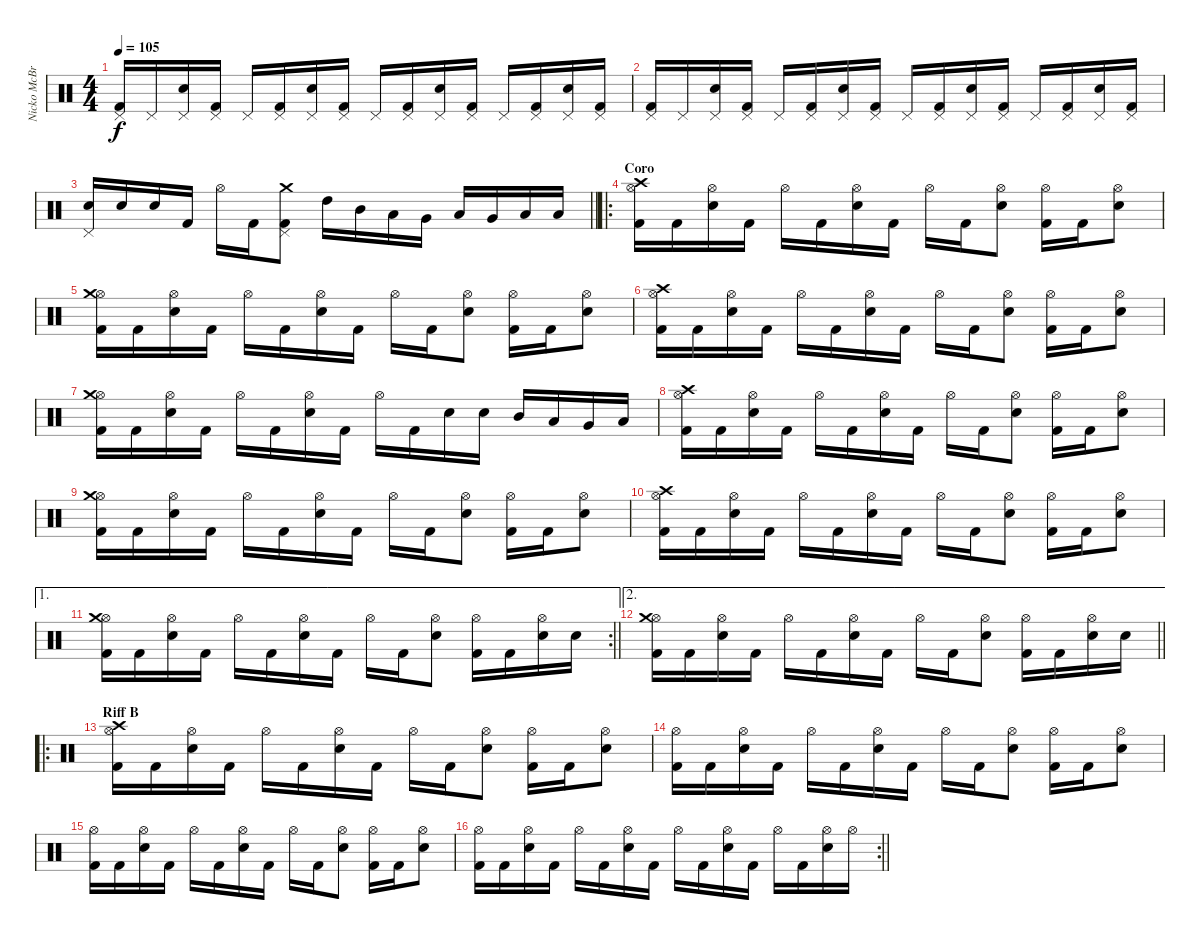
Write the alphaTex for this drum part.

\track ("Nicko McBrain" "Nicko McBr") {instrument percussion}
\staff {score}
\articulation defaults
\ts (4 4)
\tempo 105
\clef neutral
\ks c
("Kick (hit) 2" "Pedal Hi-Hat (hit)").16{dy f} "Pedal Hi-Hat (hit)".16 ("Snare (hit) 2" "Pedal Hi-Hat (hit)").16 ("Kick (hit) 2" "Pedal Hi-Hat (hit)").16 "Pedal Hi-Hat (hit)".16 ("Kick (hit) 2" "Pedal Hi-Hat (hit)").16 ("Snare (hit) 2" "Pedal Hi-Hat (hit)").16 ("Kick (hit) 2" "Pedal Hi-Hat (hit)").16 "Pedal Hi-Hat (hit)".16 ("Kick (hit) 2" "Pedal Hi-Hat (hit)").16 ("Snare (hit) 2" "Pedal Hi-Hat (hit)").16 ("Kick (hit) 2" "Pedal Hi-Hat (hit)").16 "Pedal Hi-Hat (hit)".16 ("Kick (hit) 2" "Pedal Hi-Hat (hit)").16 ("Snare (hit) 2" "Pedal Hi-Hat (hit)").16 ("Kick (hit) 2" "Pedal Hi-Hat (hit)").16 |
("Kick (hit) 2" "Pedal Hi-Hat (hit)").16 "Pedal Hi-Hat (hit)".16 ("Snare (hit) 2" "Pedal Hi-Hat (hit)").16 ("Kick (hit) 2" "Pedal Hi-Hat (hit)").16 "Pedal Hi-Hat (hit)".16 ("Kick (hit) 2" "Pedal Hi-Hat (hit)").16 ("Snare (hit) 2" "Pedal Hi-Hat (hit)").16 ("Kick (hit) 2" "Pedal Hi-Hat (hit)").16 "Pedal Hi-Hat (hit)".16 ("Kick (hit) 2" "Pedal Hi-Hat (hit)").16 ("Snare (hit) 2" "Pedal Hi-Hat (hit)").16 ("Kick (hit) 2" "Pedal Hi-Hat (hit)").16 "Pedal Hi-Hat (hit)".16 ("Kick (hit) 2" "Pedal Hi-Hat (hit)").16 ("Snare (hit) 2" "Pedal Hi-Hat (hit)").16 ("Kick (hit) 2" "Pedal Hi-Hat (hit)").16 |
\barLineRight lightlight
("Snare (hit) 2" "Pedal Hi-Hat (hit)").16 "Snare (hit) 2".16 "Snare (hit) 2".16 "Kick (hit) 2".16 "Hi-Hat (open)".16 "Kick (hit) 2".16 ("Kick (hit) 2" "Pedal Hi-Hat (hit)" "Crash medium (hit)").8 "High Tom (hit)".16 "Mid Tom (hit)".16 "Low Tom (hit)".16 "Very Low Tom (hit)".16 "Low Tom (hit)".16 "Very Low Tom (hit)".16 "Low Floor Tom (hit)".16 "Low Floor Tom (hit)".16 |
\ro
\section ("" "Coro")
("Kick (hit) 2" "Hi-Hat (open)" "Crash high (hit)").16 "Kick (hit) 2".16 ("Snare (hit) 2" "Hi-Hat (open)").16 "Kick (hit) 2".16 "Hi-Hat (open)".16 "Kick (hit) 2".16 ("Snare (hit) 2" "Hi-Hat (open)").16 "Kick (hit) 2".16 "Hi-Hat (open)".16 "Kick (hit) 2".16 ("Snare (hit) 2" "Hi-Hat (open)").8 ("Kick (hit) 2" "Hi-Hat (open)").16 "Kick (hit) 2".16 ("Snare (hit) 2" "Hi-Hat (open)").8 |
("Kick (hit) 2" "Hi-Hat (open)" "Crash medium (hit)").16 "Kick (hit) 2".16 ("Snare (hit) 2" "Hi-Hat (open)").16 "Kick (hit) 2".16 "Hi-Hat (open)".16 "Kick (hit) 2".16 ("Snare (hit) 2" "Hi-Hat (open)").16 "Kick (hit) 2".16 "Hi-Hat (open)".16 "Kick (hit) 2".16 ("Snare (hit) 2" "Hi-Hat (open)").8 ("Kick (hit) 2" "Hi-Hat (open)").16 "Kick (hit) 2".16 ("Snare (hit) 2" "Hi-Hat (open)").8 |
("Kick (hit) 2" "Hi-Hat (open)" "Crash high (hit)").16 "Kick (hit) 2".16 ("Snare (hit) 2" "Hi-Hat (open)").16 "Kick (hit) 2".16 "Hi-Hat (open)".16 "Kick (hit) 2".16 ("Snare (hit) 2" "Hi-Hat (open)").16 "Kick (hit) 2".16 "Hi-Hat (open)".16 "Kick (hit) 2".16 ("Snare (hit) 2" "Hi-Hat (open)").8 ("Kick (hit) 2" "Hi-Hat (open)").16 "Kick (hit) 2".16 ("Snare (hit) 2" "Hi-Hat (open)").8 |
("Kick (hit) 2" "Hi-Hat (open)" "Crash medium (hit)").16 "Kick (hit) 2".16 ("Snare (hit) 2" "Hi-Hat (open)").16 "Kick (hit) 2".16 "Hi-Hat (open)".16 "Kick (hit) 2".16 ("Snare (hit) 2" "Hi-Hat (open)").16 "Kick (hit) 2".16 "Hi-Hat (open)".16 "Kick (hit) 2".16 "Snare (hit) 2".16 "Snare (hit) 2".16 "Mid Tom (hit)".16 "Low Tom (hit)".16 "Very Low Tom (hit)".16 "Low Floor Tom (hit)".16 |
("Kick (hit) 2" "Hi-Hat (open)" "Crash high (hit)").16 "Kick (hit) 2".16 ("Snare (hit) 2" "Hi-Hat (open)").16 "Kick (hit) 2".16 "Hi-Hat (open)".16 "Kick (hit) 2".16 ("Snare (hit) 2" "Hi-Hat (open)").16 "Kick (hit) 2".16 "Hi-Hat (open)".16 "Kick (hit) 2".16 ("Snare (hit) 2" "Hi-Hat (open)").8 ("Kick (hit) 2" "Hi-Hat (open)").16 "Kick (hit) 2".16 ("Snare (hit) 2" "Hi-Hat (open)").8 |
("Kick (hit) 2" "Hi-Hat (open)" "Crash medium (hit)").16 "Kick (hit) 2".16 ("Snare (hit) 2" "Hi-Hat (open)").16 "Kick (hit) 2".16 "Hi-Hat (open)".16 "Kick (hit) 2".16 ("Snare (hit) 2" "Hi-Hat (open)").16 "Kick (hit) 2".16 "Hi-Hat (open)".16 "Kick (hit) 2".16 ("Snare (hit) 2" "Hi-Hat (open)").8 ("Kick (hit) 2" "Hi-Hat (open)").16 "Kick (hit) 2".16 ("Snare (hit) 2" "Hi-Hat (open)").8 |
("Kick (hit) 2" "Hi-Hat (open)" "Crash high (hit)").16 "Kick (hit) 2".16 ("Snare (hit) 2" "Hi-Hat (open)").16 "Kick (hit) 2".16 "Hi-Hat (open)".16 "Kick (hit) 2".16 ("Snare (hit) 2" "Hi-Hat (open)").16 "Kick (hit) 2".16 "Hi-Hat (open)".16 "Kick (hit) 2".16 ("Snare (hit) 2" "Hi-Hat (open)").8 ("Kick (hit) 2" "Hi-Hat (open)").16 "Kick (hit) 2".16 ("Snare (hit) 2" "Hi-Hat (open)").8 |
\ae 1
\rc 2
\barLineRight lightlight
("Kick (hit) 2" "Hi-Hat (open)" "Crash medium (hit)").16 "Kick (hit) 2".16 ("Snare (hit) 2" "Hi-Hat (open)").16 "Kick (hit) 2".16 "Hi-Hat (open)".16 "Kick (hit) 2".16 ("Snare (hit) 2" "Hi-Hat (open)").16 "Kick (hit) 2".16 "Hi-Hat (open)".16 "Kick (hit) 2".16 ("Snare (hit) 2" "Hi-Hat (open)").8 ("Kick (hit) 2" "Hi-Hat (open)").16 "Kick (hit) 2".16 ("Snare (hit) 2" "Hi-Hat (open)").16 "Snare (hit) 2".16 |
\ae 2
\barLineRight lightlight
("Kick (hit) 2" "Hi-Hat (open)" "Crash medium (hit)").16 "Kick (hit) 2".16 ("Snare (hit) 2" "Hi-Hat (open)").16 "Kick (hit) 2".16 "Hi-Hat (open)".16 "Kick (hit) 2".16 ("Snare (hit) 2" "Hi-Hat (open)").16 "Kick (hit) 2".16 "Hi-Hat (open)".16 "Kick (hit) 2".16 ("Snare (hit) 2" "Hi-Hat (open)").8 ("Kick (hit) 2" "Hi-Hat (open)").16 "Kick (hit) 2".16 ("Snare (hit) 2" "Hi-Hat (open)").16 "Snare (hit) 2".16 |
\ro
\section ("" "Riff B")
("Kick (hit) 2" "Hi-Hat (open)" "Crash high (hit)").16 "Kick (hit) 2".16 ("Snare (hit) 2" "Hi-Hat (open)").16 "Kick (hit) 2".16 "Hi-Hat (open)".16 "Kick (hit) 2".16 ("Snare (hit) 2" "Hi-Hat (open)").16 "Kick (hit) 2".16 "Hi-Hat (open)".16 "Kick (hit) 2".16 ("Snare (hit) 2" "Hi-Hat (open)").8 ("Kick (hit) 2" "Hi-Hat (open)").16 "Kick (hit) 2".16 ("Snare (hit) 2" "Hi-Hat (open)").8 |
("Kick (hit) 2" "Hi-Hat (open)").16 "Kick (hit) 2".16 ("Snare (hit) 2" "Hi-Hat (open)").16 "Kick (hit) 2".16 "Hi-Hat (open)".16 "Kick (hit) 2".16 ("Snare (hit) 2" "Hi-Hat (open)").16 "Kick (hit) 2".16 "Hi-Hat (open)".16 "Kick (hit) 2".16 ("Snare (hit) 2" "Hi-Hat (open)").8 ("Kick (hit) 2" "Hi-Hat (open)").16 "Kick (hit) 2".16 ("Snare (hit) 2" "Hi-Hat (open)").8 |
("Kick (hit) 2" "Hi-Hat (open)").16 "Kick (hit) 2".16 ("Snare (hit) 2" "Hi-Hat (open)").16 "Kick (hit) 2".16 "Hi-Hat (open)".16 "Kick (hit) 2".16 ("Snare (hit) 2" "Hi-Hat (open)").16 "Kick (hit) 2".16 "Hi-Hat (open)".16 "Kick (hit) 2".16 ("Snare (hit) 2" "Hi-Hat (open)").8 ("Kick (hit) 2" "Hi-Hat (open)").16 "Kick (hit) 2".16 ("Snare (hit) 2" "Hi-Hat (open)").8 |
\rc 2
\barLineRight lightlight
("Kick (hit) 2" "Hi-Hat (open)").16 "Kick (hit) 2".16 ("Snare (hit) 2" "Hi-Hat (open)").16 "Kick (hit) 2".16 "Hi-Hat (open)".16 "Kick (hit) 2".16 ("Snare (hit) 2" "Hi-Hat (open)").16 "Kick (hit) 2".16 "Hi-Hat (open)".16 "Kick (hit) 2".16 ("Snare (hit) 2" "Hi-Hat (open)").16 "Kick (hit) 2".16 "Hi-Hat (open)".16 "Kick (hit) 2".16 ("Snare (hit) 2" "Hi-Hat (open)").16 "Hi-Hat (open)".16
